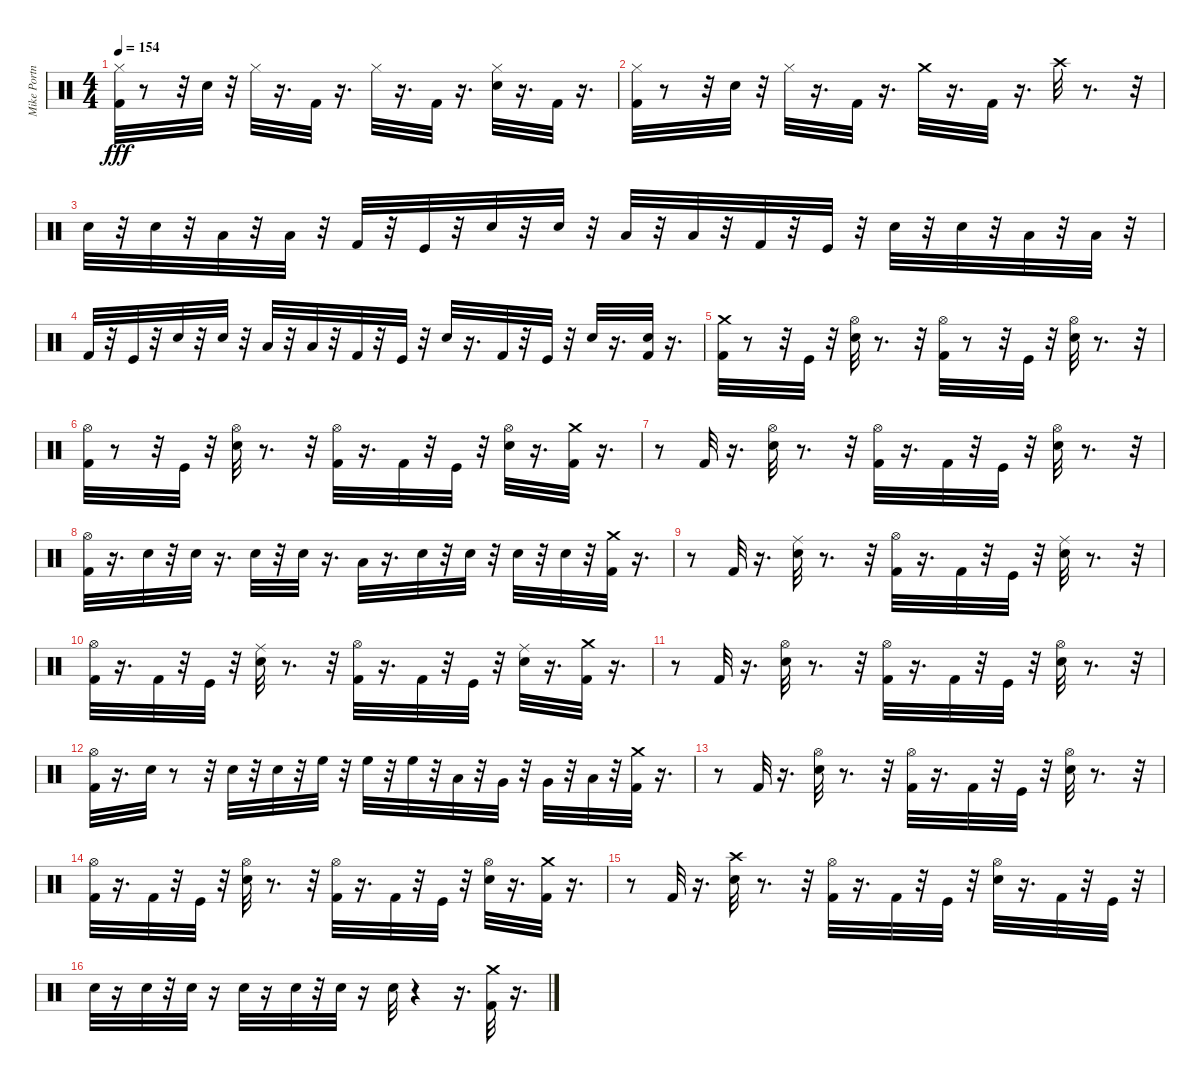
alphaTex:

\track ("Mike Portnoy" "Mike Portn") {instrument percussion}
\staff {score}
\articulation defaults
\ts (4 4)
\tempo 154
\clef neutral
\ks c
("Kick (hit) 2" "Hi-Hat (closed)").32{dy fff} r.8 r.32 "Snare (hit) 2".32 r.32 "Hi-Hat (closed)".32 r.16{d} "Kick (hit) 2".32 r.16{d} "Hi-Hat (closed)".32 r.16{d} "Kick (hit) 2".32 r.16{d} ("Snare (hit) 2" "Hi-Hat (closed)").32 r.16{d} "Kick (hit) 2".32 r.16{d} |
("Kick (hit) 2" "Hi-Hat (closed)").32 r.8 r.32 "Snare (hit) 2".32 r.32 "Hi-Hat (closed)".32 r.16{d} "Kick (hit) 2".32 r.16{d} "Crash medium (hit)".32 r.16{d} "Kick (hit) 2".32 r.16{d} "Crash high (hit)".32 r.8{d} r.32 |
"Snare (hit) 2".32 r.32 "Snare (hit) 2".32 r.32 "Low Tom (hit)".32 r.32 "Low Tom (hit)".32 r.32 "Kick (hit) 2".32 r.32 "Kick (hit)".32 r.32 "Snare (hit) 2".32 r.32 "Snare (hit) 2".32 r.32 "Low Tom (hit)".32 r.32 "Low Tom (hit)".32 r.32 "Kick (hit) 2".32 r.32 "Kick (hit)".32 r.32 "Snare (hit) 2".32 r.32 "Snare (hit) 2".32 r.32 "Low Tom (hit)".32 r.32 "Low Tom (hit)".32 r.32 |
"Kick (hit) 2".32 r.32 "Kick (hit)".32 r.32 "Snare (hit) 2".32 r.32 "Snare (hit) 2".32 r.32 "Low Tom (hit)".32 r.32 "Low Tom (hit)".32 r.32 "Kick (hit) 2".32 r.32 "Kick (hit)".32 r.32 "Snare (hit) 2".32 r.16{d} "Kick (hit) 2".32 r.32 "Kick (hit)".32 r.32 "Snare (hit) 2".32 r.16{d} ("Kick (hit) 2" "Snare (hit) 2").32 r.16{d} |
("Kick (hit) 2" "Crash medium (hit)").32 r.8 r.32 "Kick (hit)".32 r.32 ("Snare (hit) 2" "Hi-Hat (open)").32 r.8{d} r.32 ("Kick (hit) 2" "Hi-Hat (open)").32 r.8 r.32 "Kick (hit)".32 r.32 ("Snare (hit) 2" "Hi-Hat (open)").32 r.8{d} r.32 |
("Kick (hit) 2" "Hi-Hat (open)").32 r.8 r.32 "Kick (hit)".32 r.32 ("Snare (hit) 2" "Hi-Hat (open)").32 r.8{d} r.32 ("Kick (hit) 2" "Hi-Hat (open)").32 r.16{d} "Kick (hit) 2".32 r.32 "Kick (hit)".32 r.32 ("Snare (hit) 2" "Hi-Hat (open)").32 r.16{d} ("Kick (hit) 2" "Crash medium (hit)").32 r.16{d} |
r.8 "Kick (hit) 2".32 r.16{d} ("Snare (hit) 2" "Hi-Hat (open)").32 r.8{d} r.32 ("Kick (hit) 2" "Hi-Hat (open)").32 r.16{d} "Kick (hit) 2".32 r.32 "Kick (hit)".32 r.32 ("Snare (hit) 2" "Hi-Hat (open)").32 r.8{d} r.32 |
("Kick (hit) 2" "Hi-Hat (open)").32 r.16{d} "Snare (hit) 2".32 r.32 "Snare (hit) 2".32 r.16{d} "Snare (hit) 2".32 r.32 "Snare (hit) 2".32 r.16{d} "Low Tom (hit)".32 r.16{d} "Snare (hit) 2".32 r.32 "Snare (hit) 2".32 r.32 "Snare (hit) 2".32 r.32 "Snare (hit) 2".32 r.32 ("Kick (hit) 2" "Crash medium (hit)").32 r.16{d} |
r.8 "Kick (hit) 2".32 r.16{d} ("Snare (hit) 2" "Ride (middle)").32 r.8{d} r.32 ("Kick (hit) 2" "Hi-Hat (open)").32 r.16{d} "Kick (hit) 2".32 r.32 "Kick (hit)".32 r.32 ("Snare (hit) 2" "Ride (middle)").32 r.8{d} r.32 |
("Kick (hit) 2" "Hi-Hat (open)").32 r.16{d} "Kick (hit) 2".32 r.32 "Kick (hit)".32 r.32 ("Snare (hit) 2" "Ride (middle)").32 r.8{d} r.32 ("Kick (hit) 2" "Hi-Hat (open)").32 r.16{d} "Kick (hit) 2".32 r.32 "Kick (hit)".32 r.32 ("Snare (hit) 2" "Ride (middle)").32 r.16{d} ("Kick (hit) 2" "Crash medium (hit)").32 r.16{d} |
r.8 "Kick (hit) 2".32 r.16{d} ("Snare (hit) 2" "Hi-Hat (open)").32 r.8{d} r.32 ("Kick (hit) 2" "Hi-Hat (open)").32 r.16{d} "Kick (hit) 2".32 r.32 "Kick (hit)".32 r.32 ("Snare (hit) 2" "Hi-Hat (open)").32 r.8{d} r.32 |
("Kick (hit) 2" "Hi-Hat (open)").32 r.16{d} "Snare (hit) 2".32 r.8 r.32 "Snare (hit) 2".32 r.32 "Snare (hit) 2".32 r.32 "High Floor Tom (hit)".32 r.32 "High Floor Tom (hit)".32 r.32 "High Floor Tom (hit)".32 r.32 "Low Tom (hit)".32 r.32 "Very Low Tom (hit)".32 r.32 "Very Low Tom (hit)".32 r.32 "Low Floor Tom (hit)".32 r.32 ("Crash medium (hit)" "Kick (hit) 2").32 r.16{d} |
r.8 "Kick (hit) 2".32 r.16{d} ("Snare (hit) 2" "Hi-Hat (open)").32 r.8{d} r.32 ("Kick (hit) 2" "Hi-Hat (open)").32 r.16{d} "Kick (hit) 2".32 r.32 "Kick (hit)".32 r.32 ("Snare (hit) 2" "Hi-Hat (open)").32 r.8{d} r.32 |
("Kick (hit) 2" "Hi-Hat (open)").32 r.16{d} "Kick (hit) 2".32 r.32 "Kick (hit)".32 r.32 ("Snare (hit) 2" "Hi-Hat (open)").32 r.8{d} r.32 ("Kick (hit) 2" "Hi-Hat (open)").32 r.16{d} "Kick (hit) 2".32 r.32 "Kick (hit)".32 r.32 ("Snare (hit) 2" "Hi-Hat (open)").32 r.16{d} ("Kick (hit) 2" "Crash medium (hit)").32 r.16{d} |
r.8 "Kick (hit) 2".32 r.16{d} ("Snare (hit) 2" "Crash high (hit)").32 r.8{d} r.32 ("Kick (hit) 2" "Hi-Hat (open)").32 r.16{d} "Kick (hit) 2".32 r.32 "Kick (hit)".32 r.32 ("Snare (hit) 2" "Hi-Hat (open)").32 r.16{d} "Kick (hit) 2".32 r.32 "Kick (hit)".32 r.32 |
"Snare (hit) 2".32 r.16 "Snare (hit) 2".32 r.32 "Snare (hit) 2".32 r.16 "Snare (hit) 2".32 r.16 "Snare (hit) 2".32 r.32 "Snare (hit) 2".32 r.16 "Snare (hit) 2".32 r.4 r.16{d} ("Crash medium (hit)" "Kick (hit) 2").32 r.16{d}
